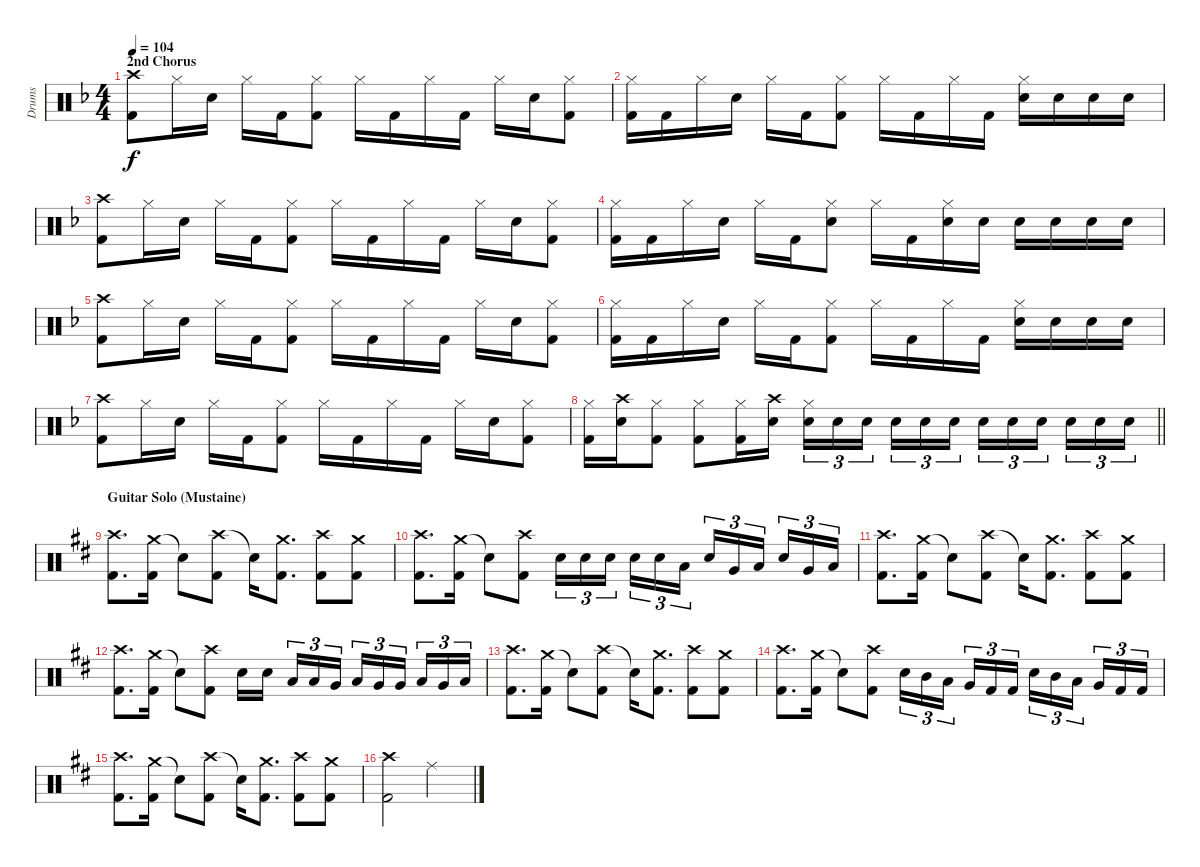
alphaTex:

\track ("Drums" "Drums") {instrument percussion}
\staff {score}
\articulation defaults
\ts (4 4)
\section ("" "2nd Chorus")
\tempo 104
\clef neutral
\ks dminor
("Crash high (hit)" "Kick (hit) 2").8{dy f} "Hi-Hat (closed)".16 "Snare (hit) 2".16 "Hi-Hat (closed)".16 "Kick (hit) 2".16 ("Hi-Hat (closed)" "Kick (hit) 2").8 "Hi-Hat (closed)".16 "Kick (hit) 2".16 "Hi-Hat (closed)".16 "Kick (hit) 2".16 "Hi-Hat (closed)".16 "Snare (hit) 2".16 ("Hi-Hat (closed)" "Kick (hit) 2").8 |
("Hi-Hat (closed)" "Kick (hit) 2").16 "Kick (hit) 2".16 "Hi-Hat (closed)".16 "Snare (hit) 2".16 "Hi-Hat (closed)".16 "Kick (hit) 2".16 ("Hi-Hat (closed)" "Kick (hit) 2").8 "Hi-Hat (closed)".16 "Kick (hit) 2".16 "Hi-Hat (closed)".16 "Kick (hit) 2".16 ("Hi-Hat (closed)" "Snare (hit) 2").16 "Snare (hit) 2".16 "Snare (hit) 2".16 "Snare (hit) 2".16 |
("Crash high (hit)" "Kick (hit) 2").8 "Hi-Hat (closed)".16 "Snare (hit) 2".16 "Hi-Hat (closed)".16 "Kick (hit) 2".16 ("Hi-Hat (closed)" "Kick (hit) 2").8 "Hi-Hat (closed)".16 "Kick (hit) 2".16 "Hi-Hat (closed)".16 "Kick (hit) 2".16 "Hi-Hat (closed)".16 "Snare (hit) 2".16 ("Hi-Hat (closed)" "Kick (hit) 2").8 |
("Hi-Hat (closed)" "Kick (hit) 2").16 "Kick (hit) 2".16 "Hi-Hat (closed)".16 "Snare (hit) 2".16 "Hi-Hat (closed)".16 "Kick (hit) 2".16 ("Hi-Hat (closed)" "Snare (hit) 2").8 "Hi-Hat (closed)".16 "Kick (hit) 2".16 ("Hi-Hat (closed)" "Snare (hit) 2").16 "Snare (hit) 2".16 "Snare (hit) 2".16 "Snare (hit) 2".16 "Snare (hit) 2".16 "Snare (hit) 2".16 |
("Crash high (hit)" "Kick (hit) 2").8 "Hi-Hat (closed)".16 "Snare (hit) 2".16 "Hi-Hat (closed)".16 "Kick (hit) 2".16 ("Hi-Hat (closed)" "Kick (hit) 2").8 "Hi-Hat (closed)".16 "Kick (hit) 2".16 "Hi-Hat (closed)".16 "Kick (hit) 2".16 "Hi-Hat (closed)".16 "Snare (hit) 2".16 ("Hi-Hat (closed)" "Kick (hit) 2").8 |
("Hi-Hat (closed)" "Kick (hit) 2").16 "Kick (hit) 2".16 "Hi-Hat (closed)".16 "Snare (hit) 2".16 "Hi-Hat (closed)".16 "Kick (hit) 2".16 ("Hi-Hat (closed)" "Kick (hit) 2").8 "Hi-Hat (closed)".16 "Kick (hit) 2".16 "Hi-Hat (closed)".16 "Kick (hit) 2".16 ("Hi-Hat (closed)" "Snare (hit) 2").16 "Snare (hit) 2".16 "Snare (hit) 2".16 "Snare (hit) 2".16 |
("Crash high (hit)" "Kick (hit) 2").8 "Hi-Hat (closed)".16 "Snare (hit) 2".16 "Hi-Hat (closed)".16 "Kick (hit) 2".16 ("Hi-Hat (closed)" "Kick (hit) 2").8 "Hi-Hat (closed)".16 "Kick (hit) 2".16 "Hi-Hat (closed)".16 "Kick (hit) 2".16 "Hi-Hat (closed)".16 "Snare (hit) 2".16 ("Hi-Hat (closed)" "Kick (hit) 2").8 |
\barLineRight lightlight
("Hi-Hat (closed)" "Kick (hit) 2").16 ("Crash high (hit)" "Snare (hit) 2").16 ("Hi-Hat (closed)" "Kick (hit) 2").8 ("Hi-Hat (closed)" "Kick (hit) 2").8 ("Hi-Hat (closed)" "Kick (hit) 2").16 ("Crash high (hit)" "Snare (hit) 2").16 ("Hi-Hat (closed)" "Snare (hit) 2").16{tu (3 2)} "Snare (hit) 2".16{tu (3 2)} "Snare (hit) 2".16{tu (3 2) beam splitsecondary} "Snare (hit) 2".16{tu (3 2)} "Snare (hit) 2".16{tu (3 2)} "Snare (hit) 2".16{tu (3 2)} "Snare (hit) 2".16{tu (3 2)} "Snare (hit) 2".16{tu (3 2)} "Snare (hit) 2".16{tu (3 2) beam splitsecondary} "Snare (hit) 2".16{tu (3 2)} "Snare (hit) 2".16{tu (3 2)} "Snare (hit) 2".16{tu (3 2)} |
\section ("" "Guitar Solo (Mustaine)")
\ks bminor
("Crash high (hit)" "Kick (hit) 2").8{d} ("Crash medium (hit)" "Kick (hit) 2").16 "Snare (hit)"{t}.8 ("Crash high (hit)" "Kick (hit) 2").8 "Snare (hit)"{t}.16 ("Crash medium (hit)" "Kick (hit) 2").8{d} ("Crash high (hit)" "Kick (hit) 2").8 ("Crash medium (hit)" "Kick (hit) 2").8 |
("Crash high (hit)" "Kick (hit) 2").8{d} ("Crash medium (hit)" "Kick (hit) 2").16 "Snare (hit)"{t}.8 ("Crash high (hit)" "Kick (hit) 2").8 "Snare (hit) 2".16{tu (3 2)} "Snare (hit) 2".16{tu (3 2)} "Snare (hit) 2".16{tu (3 2) beam splitsecondary} "Snare (hit) 2".16{tu (3 2)} "Snare (hit) 2".16{tu (3 2)} "Low Tom (hit)".16{tu (3 2)} "Snare (hit) 2".16{tu (3 2)} "Very Low Tom (hit)".16{tu (3 2)} "Low Tom (hit)".16{tu (3 2) beam splitsecondary} "Snare (hit) 2".16{tu (3 2)} "Very Low Tom (hit)".16{tu (3 2)} "Low Floor Tom (hit)".16{tu (3 2)} |
("Crash high (hit)" "Kick (hit) 2").8{d} ("Crash medium (hit)" "Kick (hit) 2").16 "Snare (hit)"{t}.8 ("Crash high (hit)" "Kick (hit) 2").8 "Snare (hit)"{t}.16 ("Crash medium (hit)" "Kick (hit) 2").8{d} ("Crash high (hit)" "Kick (hit) 2").8 ("Crash medium (hit)" "Kick (hit) 2").8 |
("Crash high (hit)" "Kick (hit) 2").8{d} ("Crash medium (hit)" "Kick (hit) 2").16 "Snare (hit)"{t}.8 ("Crash high (hit)" "Kick (hit) 2").8 "Snare (hit) 2".16 "Snare (hit) 2".16{beam splitsecondary} "Low Tom (hit)".16{tu (3 2)} "Low Tom (hit)".16{tu (3 2)} "Very Low Tom (hit)".16{tu (3 2)} "Low Tom (hit)".16{tu (3 2)} "Very Low Tom (hit)".16{tu (3 2)} "Very Low Tom (hit)".16{tu (3 2) beam splitsecondary} "Low Tom (hit)".16{tu (3 2)} "Very Low Tom (hit)".16{tu (3 2)} "Low Floor Tom (hit)".16{tu (3 2)} |
("Crash high (hit)" "Kick (hit) 2").8{d} ("Crash medium (hit)" "Kick (hit) 2").16 "Snare (hit)"{t}.8 ("Crash high (hit)" "Kick (hit) 2").8 "Snare (hit)"{t}.16 ("Crash medium (hit)" "Kick (hit) 2").8{d} ("Crash high (hit)" "Kick (hit) 2").8 ("Crash medium (hit)" "Kick (hit) 2").8 |
("Crash high (hit)" "Kick (hit) 2").8{d} ("Crash medium (hit)" "Kick (hit) 2").16 "Snare (hit)"{t}.8 ("Crash high (hit)" "Kick (hit) 2").8 "Snare (hit) 2".16{tu (3 2)} "Mid Tom (hit)".16{tu (3 2)} "Low Tom (hit)".16{tu (3 2) beam splitsecondary} "Very Low Tom (hit)".16{tu (3 2)} "Kick (hit) 2".16{tu (3 2)} "Kick (hit) 2".16{tu (3 2)} "Snare (hit) 2".16{tu (3 2)} "Mid Tom (hit)".16{tu (3 2)} "Low Tom (hit)".16{tu (3 2) beam splitsecondary} "Very Low Tom (hit)".16{tu (3 2)} "Kick (hit) 2".16{tu (3 2)} "Kick (hit) 2".16{tu (3 2)} |
("Crash high (hit)" "Kick (hit) 2").8{d} ("Crash medium (hit)" "Kick (hit) 2").16 "Snare (hit)"{t}.8 ("Crash high (hit)" "Kick (hit) 2").8 "Snare (hit)"{t}.16 ("Crash medium (hit)" "Kick (hit) 2").8{d} ("Crash high (hit)" "Kick (hit) 2").8 ("Crash medium (hit)" "Kick (hit) 2").8 |
("Crash high (hit)" "Kick (hit) 2").2 "Ride (middle)".2
